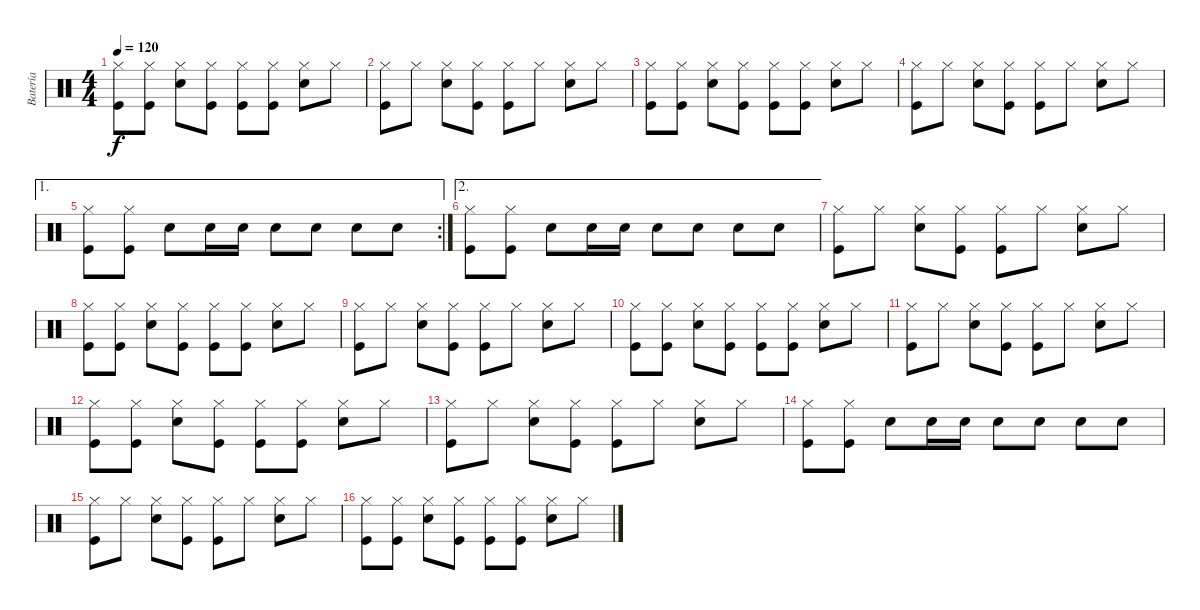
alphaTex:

\track ("Batería" "Batería") {instrument percussion}
\staff {score}
\articulation defaults
\ts (4 4)
\tempo 120
\clef neutral
\ks c
("Hi-Hat (closed)" "Kick (hit)").8{dy f} ("Hi-Hat (closed)" "Kick (hit)").8 ("Hi-Hat (closed)" "Snare (hit) 2").8 ("Hi-Hat (closed)" "Kick (hit)").8 ("Hi-Hat (closed)" "Kick (hit)").8 ("Hi-Hat (closed)" "Kick (hit)").8 ("Hi-Hat (closed)" "Snare (hit) 2").8 "Hi-Hat (closed)".8 |
("Hi-Hat (closed)" "Kick (hit)").8 "Hi-Hat (closed)".8 ("Hi-Hat (closed)" "Snare (hit) 2").8 ("Hi-Hat (closed)" "Kick (hit)").8 ("Hi-Hat (closed)" "Kick (hit)").8 "Hi-Hat (closed)".8 ("Hi-Hat (closed)" "Snare (hit) 2").8 "Hi-Hat (closed)".8 |
("Hi-Hat (closed)" "Kick (hit)").8 ("Hi-Hat (closed)" "Kick (hit)").8 ("Hi-Hat (closed)" "Snare (hit) 2").8 ("Hi-Hat (closed)" "Kick (hit)").8 ("Hi-Hat (closed)" "Kick (hit)").8 ("Hi-Hat (closed)" "Kick (hit)").8 ("Hi-Hat (closed)" "Snare (hit) 2").8 "Hi-Hat (closed)".8 |
("Hi-Hat (closed)" "Kick (hit)").8 "Hi-Hat (closed)".8 ("Hi-Hat (closed)" "Snare (hit) 2").8 ("Hi-Hat (closed)" "Kick (hit)").8 ("Hi-Hat (closed)" "Kick (hit)").8 "Hi-Hat (closed)".8 ("Hi-Hat (closed)" "Snare (hit) 2").8 "Hi-Hat (closed)".8 |
\ae 1
\rc 2
("Hi-Hat (closed)" "Kick (hit)").8 ("Hi-Hat (closed)" "Kick (hit)").8 "Electric Snare (hit)".8 "Electric Snare (hit)".16 "Electric Snare (hit)".16 "Electric Snare (hit)".8 "Electric Snare (hit)".8 "Electric Snare (hit)".8 "Electric Snare (hit)".8 |
\ae 2
("Hi-Hat (closed)" "Kick (hit)").8 ("Hi-Hat (closed)" "Kick (hit)").8 "Electric Snare (hit)".8 "Electric Snare (hit)".16 "Electric Snare (hit)".16 "Electric Snare (hit)".8 "Electric Snare (hit)".8 "Electric Snare (hit)".8 "Electric Snare (hit)".8 |
("Hi-Hat (closed)" "Kick (hit)").8 "Hi-Hat (closed)".8 ("Hi-Hat (closed)" "Snare (hit) 2").8 ("Hi-Hat (closed)" "Kick (hit)").8 ("Hi-Hat (closed)" "Kick (hit)").8 "Hi-Hat (closed)".8 ("Hi-Hat (closed)" "Snare (hit) 2").8 "Hi-Hat (closed)".8 |
("Hi-Hat (closed)" "Kick (hit)").8 ("Hi-Hat (closed)" "Kick (hit)").8 ("Hi-Hat (closed)" "Snare (hit) 2").8 ("Hi-Hat (closed)" "Kick (hit)").8 ("Hi-Hat (closed)" "Kick (hit)").8 ("Hi-Hat (closed)" "Kick (hit)").8 ("Hi-Hat (closed)" "Snare (hit) 2").8 "Hi-Hat (closed)".8 |
("Hi-Hat (closed)" "Kick (hit)").8 "Hi-Hat (closed)".8 ("Hi-Hat (closed)" "Snare (hit) 2").8 ("Hi-Hat (closed)" "Kick (hit)").8 ("Hi-Hat (closed)" "Kick (hit)").8 "Hi-Hat (closed)".8 ("Hi-Hat (closed)" "Snare (hit) 2").8 "Hi-Hat (closed)".8 |
("Hi-Hat (closed)" "Kick (hit)").8 ("Hi-Hat (closed)" "Kick (hit)").8 ("Hi-Hat (closed)" "Snare (hit) 2").8 ("Hi-Hat (closed)" "Kick (hit)").8 ("Hi-Hat (closed)" "Kick (hit)").8 ("Hi-Hat (closed)" "Kick (hit)").8 ("Hi-Hat (closed)" "Snare (hit) 2").8 "Hi-Hat (closed)".8 |
("Hi-Hat (closed)" "Kick (hit)").8 "Hi-Hat (closed)".8 ("Hi-Hat (closed)" "Snare (hit) 2").8 ("Hi-Hat (closed)" "Kick (hit)").8 ("Hi-Hat (closed)" "Kick (hit)").8 "Hi-Hat (closed)".8 ("Hi-Hat (closed)" "Snare (hit) 2").8 "Hi-Hat (closed)".8 |
("Hi-Hat (closed)" "Kick (hit)").8 ("Hi-Hat (closed)" "Kick (hit)").8 ("Hi-Hat (closed)" "Snare (hit) 2").8 ("Hi-Hat (closed)" "Kick (hit)").8 ("Hi-Hat (closed)" "Kick (hit)").8 ("Hi-Hat (closed)" "Kick (hit)").8 ("Hi-Hat (closed)" "Snare (hit) 2").8 "Hi-Hat (closed)".8 |
("Hi-Hat (closed)" "Kick (hit)").8 "Hi-Hat (closed)".8 ("Hi-Hat (closed)" "Snare (hit) 2").8 ("Hi-Hat (closed)" "Kick (hit)").8 ("Hi-Hat (closed)" "Kick (hit)").8 "Hi-Hat (closed)".8 ("Hi-Hat (closed)" "Snare (hit) 2").8 "Hi-Hat (closed)".8 |
("Hi-Hat (closed)" "Kick (hit)").8 ("Hi-Hat (closed)" "Kick (hit)").8 "Electric Snare (hit)".8 "Electric Snare (hit)".16 "Electric Snare (hit)".16 "Electric Snare (hit)".8 "Electric Snare (hit)".8 "Electric Snare (hit)".8 "Electric Snare (hit)".8 |
("Hi-Hat (closed)" "Kick (hit)").8 "Hi-Hat (closed)".8 ("Hi-Hat (closed)" "Snare (hit) 2").8 ("Hi-Hat (closed)" "Kick (hit)").8 ("Hi-Hat (closed)" "Kick (hit)").8 "Hi-Hat (closed)".8 ("Hi-Hat (closed)" "Snare (hit) 2").8 "Hi-Hat (closed)".8 |
("Hi-Hat (closed)" "Kick (hit)").8 ("Hi-Hat (closed)" "Kick (hit)").8 ("Hi-Hat (closed)" "Snare (hit) 2").8 ("Hi-Hat (closed)" "Kick (hit)").8 ("Hi-Hat (closed)" "Kick (hit)").8 ("Hi-Hat (closed)" "Kick (hit)").8 ("Hi-Hat (closed)" "Snare (hit) 2").8 "Hi-Hat (closed)".8
